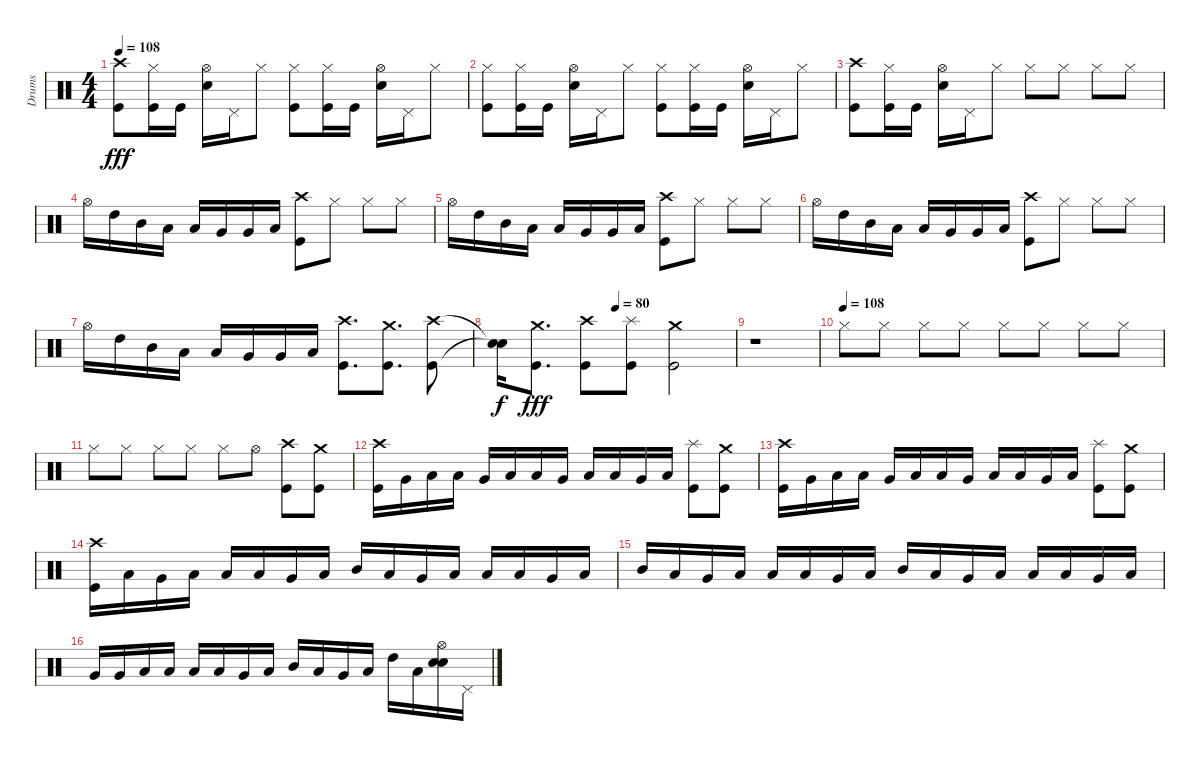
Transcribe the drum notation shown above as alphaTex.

\track ("Drums" "Drums") {instrument percussion}
\staff {score}
\articulation defaults
\ts (4 4)
\tempo 108
\clef neutral
\ks c
("Crash high (hit)" "Kick (hit)").8{dy fff} ("Hi-Hat (closed)" "Kick (hit)").16 "Kick (hit)".16 ("Hi-Hat (open)" "Snare (hit) 2").16 "Pedal Hi-Hat (hit)".16 "Hi-Hat (closed)".8 ("Hi-Hat (closed)" "Kick (hit)").8 ("Hi-Hat (closed)" "Kick (hit)").16 "Kick (hit)".16 ("Hi-Hat (open)" "Snare (hit) 2").16 "Pedal Hi-Hat (hit)".16 "Hi-Hat (closed)".8 |
("Hi-Hat (closed)" "Kick (hit)").8 ("Hi-Hat (closed)" "Kick (hit)").16 "Kick (hit)".16 ("Hi-Hat (open)" "Snare (hit) 2").16 "Pedal Hi-Hat (hit)".16 "Hi-Hat (closed)".8 ("Hi-Hat (closed)" "Kick (hit)").8 ("Hi-Hat (closed)" "Kick (hit)").16 "Kick (hit)".16 ("Hi-Hat (open)" "Snare (hit) 2").16 "Pedal Hi-Hat (hit)".16 "Hi-Hat (closed)".8 |
("Crash high (hit)" "Kick (hit)").8 ("Hi-Hat (closed)" "Kick (hit)").16 "Kick (hit)".16 ("Hi-Hat (open)" "Snare (hit) 2").16 "Pedal Hi-Hat (hit)".16 "Hi-Hat (closed)".8 "Hi-Hat (closed)".8 "Hi-Hat (closed)".8 "Hi-Hat (closed)".8 "Hi-Hat (closed)".8 |
"Hi-Hat (open)".16 "High Tom (hit)".16 "Mid Tom (hit)".16 "Low Tom (hit)".16 "Low Tom (hit)".16 "Very Low Tom (hit)".16 "Very Low Tom (hit)".16 "Low Floor Tom (hit)".16 ("Crash high (hit)" "Kick (hit)").8 "Hi-Hat (closed)".8 "Hi-Hat (closed)".8 "Hi-Hat (closed)".8 |
"Hi-Hat (open)".16 "High Tom (hit)".16 "Mid Tom (hit)".16 "Low Tom (hit)".16 "Low Tom (hit)".16 "Very Low Tom (hit)".16 "Very Low Tom (hit)".16 "Low Floor Tom (hit)".16 ("Crash high (hit)" "Kick (hit)").8 "Hi-Hat (closed)".8 "Hi-Hat (closed)".8 "Hi-Hat (closed)".8 |
"Hi-Hat (open)".16 "High Tom (hit)".16 "Mid Tom (hit)".16 "Low Tom (hit)".16 "Low Tom (hit)".16 "Very Low Tom (hit)".16 "Very Low Tom (hit)".16 "Low Floor Tom (hit)".16 ("Crash high (hit)" "Kick (hit)").8 "Hi-Hat (closed)".8 "Hi-Hat (closed)".8 "Hi-Hat (closed)".8 |
"Hi-Hat (open)".16 "High Tom (hit)".16 "Mid Tom (hit)".16 "Low Tom (hit)".16 "Low Tom (hit)".16 "Very Low Tom (hit)".16 "Very Low Tom (hit)".16 "Low Floor Tom (hit)".16 ("Crash high (hit)" "Kick (hit)").8{d} ("Crash medium (hit)" "Kick (hit)").8{d} ("Crash high (hit)" "Kick (hit)").8 |
\tempo (80 0.5)
("Snare (hit)"{t} "Snare (hit)"{t}).16{dy f} ("Crash medium (hit)" "Kick (hit)").8{d dy fff} ("Crash high (hit)" "Kick (hit)").8 ("Splash (hit)" "Kick (hit)").8 ("Crash medium (hit)" "Kick (hit)").2 |
r.1 |
\tempo (108)
"Hi-Hat (closed)".8 "Hi-Hat (closed)".8 "Hi-Hat (closed)".8 "Hi-Hat (closed)".8 "Hi-Hat (closed)".8 "Hi-Hat (closed)".8 "Hi-Hat (closed)".8 "Hi-Hat (closed)".8 |
"Hi-Hat (closed)".8 "Hi-Hat (closed)".8 "Hi-Hat (closed)".8 "Hi-Hat (closed)".8 "Hi-Hat (closed)".8 "Hi-Hat (open)".8 ("Crash high (hit)" "Kick (hit)").8 ("Crash medium (hit)" "Kick (hit)").8 |
("Crash high (hit)" "Kick (hit)").16 "Very Low Tom (hit)".16 "Low Floor Tom (hit)".16 "Low Tom (hit)".16 "Very Low Tom (hit)".16 "Low Floor Tom (hit)".16 "Low Tom (hit)".16 "Very Low Tom (hit)".16 "Low Floor Tom (hit)".16 "Low Tom (hit)".16 "Very Low Tom (hit)".16 "Low Floor Tom (hit)".16 ("Splash (hit)" "Kick (hit)").8 ("Crash medium (hit)" "Kick (hit)").8 |
("Crash high (hit)" "Kick (hit)").16 "Very Low Tom (hit)".16 "Low Floor Tom (hit)".16 "Low Tom (hit)".16 "Very Low Tom (hit)".16 "Low Floor Tom (hit)".16 "Low Tom (hit)".16 "Very Low Tom (hit)".16 "Low Floor Tom (hit)".16 "Low Tom (hit)".16 "Very Low Tom (hit)".16 "Low Floor Tom (hit)".16 ("Splash (hit)" "Kick (hit)").8 ("Crash medium (hit)" "Kick (hit)").8 |
("Crash high (hit)" "Kick (hit)").16 "Low Floor Tom (hit)".16 "Very Low Tom (hit)".16 "Low Floor Tom (hit)".16 "Low Tom (hit)".16 "Low Floor Tom (hit)".16 "Very Low Tom (hit)".16 "Low Floor Tom (hit)".16 "Mid Tom (hit)".16 "Low Floor Tom (hit)".16 "Very Low Tom (hit)".16 "Low Floor Tom (hit)".16 "Low Tom (hit)".16 "Low Floor Tom (hit)".16 "Very Low Tom (hit)".16 "Low Floor Tom (hit)".16 |
"Mid Tom (hit)".16 "Low Floor Tom (hit)".16 "Very Low Tom (hit)".16 "Low Floor Tom (hit)".16 "Low Tom (hit)".16 "Low Floor Tom (hit)".16 "Very Low Tom (hit)".16 "Low Floor Tom (hit)".16 "Mid Tom (hit)".16 "Low Floor Tom (hit)".16 "Very Low Tom (hit)".16 "Low Floor Tom (hit)".16 "Low Tom (hit)".16 "Low Floor Tom (hit)".16 "Very Low Tom (hit)".16 "Low Floor Tom (hit)".16 |
"Very Low Tom (hit)".16 "Very Low Tom (hit)".16 "Low Floor Tom (hit)".16 "Low Floor Tom (hit)".16 "Low Tom (hit)".16 "Low Tom (hit)".16 "Very Low Tom (hit)".16 "Low Floor Tom (hit)".16 "Mid Tom (hit)".16 "Low Tom (hit)".16 "Very Low Tom (hit)".16 "Low Floor Tom (hit)".16 "High Tom (hit)".16 "Low Tom (hit)".16 ("Hi-Hat (open)" "Electric Snare (hit)" "Snare (hit) 2").16 "Pedal Hi-Hat (hit)".16
